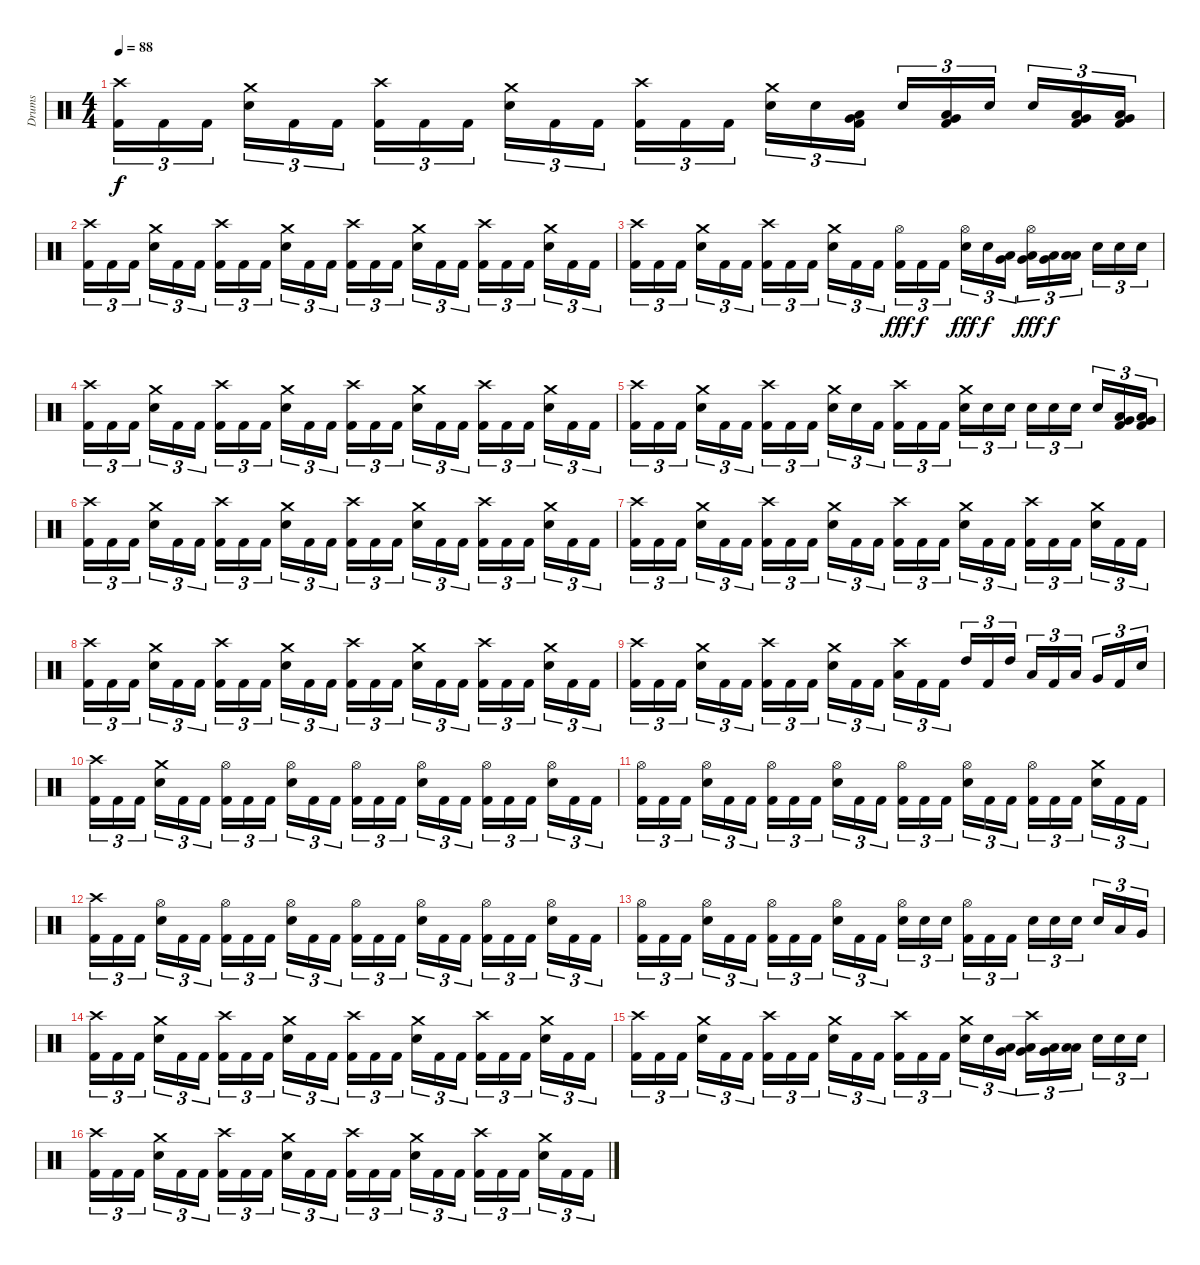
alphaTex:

\track ("Drums" "Drums") {instrument percussion}
\staff {score}
\articulation defaults
\ts (4 4)
\tempo 88
\clef neutral
\ks c
("Crash high (hit)" "Kick (hit) 2").16{tu (3 2) dy f} "Kick (hit) 2".16{tu (3 2)} "Kick (hit) 2".16{tu (3 2)} ("Crash medium (hit)" "Electric Snare (hit)").16{tu (3 2)} "Kick (hit) 2".16{tu (3 2)} "Kick (hit) 2".16{tu (3 2)} ("Crash high (hit)" "Kick (hit) 2").16{tu (3 2)} "Kick (hit) 2".16{tu (3 2)} "Kick (hit) 2".16{tu (3 2)} ("Crash medium (hit)" "Electric Snare (hit)").16{tu (3 2)} "Kick (hit) 2".16{tu (3 2)} "Kick (hit) 2".16{tu (3 2)} ("Crash high (hit)" "Kick (hit) 2").16{tu (3 2)} "Kick (hit) 2".16{tu (3 2)} "Kick (hit) 2".16{tu (3 2)} ("Crash medium (hit)" "Electric Snare (hit)").16{tu (3 2)} "Electric Snare (hit)".16{tu (3 2)} ("Very Low Tom (hit)" "Low Tom (hit)" "Kick (hit) 2").16{tu (3 2)} "Electric Snare (hit)".16{tu (3 2)} ("Low Floor Tom (hit)" "Very Low Tom (hit)" "Kick (hit) 2").16{tu (3 2)} "Electric Snare (hit)".16{tu (3 2)} "Electric Snare (hit)".16{tu (3 2)} ("Very Low Tom (hit)" "Low Tom (hit)" "Kick (hit) 2").16{tu (3 2)} ("Low Floor Tom (hit)" "Very Low Tom (hit)" "Kick (hit) 2").16{tu (3 2)} |
("Crash high (hit)" "Kick (hit) 2").16{tu (3 2)} "Kick (hit) 2".16{tu (3 2)} "Kick (hit) 2".16{tu (3 2)} ("Crash medium (hit)" "Electric Snare (hit)").16{tu (3 2)} "Kick (hit) 2".16{tu (3 2)} "Kick (hit) 2".16{tu (3 2)} ("Crash high (hit)" "Kick (hit) 2").16{tu (3 2)} "Kick (hit) 2".16{tu (3 2)} "Kick (hit) 2".16{tu (3 2)} ("Crash medium (hit)" "Electric Snare (hit)").16{tu (3 2)} "Kick (hit) 2".16{tu (3 2)} "Kick (hit) 2".16{tu (3 2)} ("Crash high (hit)" "Kick (hit) 2").16{tu (3 2)} "Kick (hit) 2".16{tu (3 2)} "Kick (hit) 2".16{tu (3 2)} ("Crash medium (hit)" "Electric Snare (hit)").16{tu (3 2)} "Kick (hit) 2".16{tu (3 2)} "Kick (hit) 2".16{tu (3 2)} ("Crash high (hit)" "Kick (hit) 2").16{tu (3 2)} "Kick (hit) 2".16{tu (3 2)} "Kick (hit) 2".16{tu (3 2)} ("Crash medium (hit)" "Electric Snare (hit)").16{tu (3 2)} "Kick (hit) 2".16{tu (3 2)} "Kick (hit) 2".16{tu (3 2)} |
("Crash high (hit)" "Kick (hit) 2").16{tu (3 2)} "Kick (hit) 2".16{tu (3 2)} "Kick (hit) 2".16{tu (3 2)} ("Crash medium (hit)" "Electric Snare (hit)").16{tu (3 2)} "Kick (hit) 2".16{tu (3 2)} "Kick (hit) 2".16{tu (3 2)} ("Crash high (hit)" "Kick (hit) 2").16{tu (3 2)} "Kick (hit) 2".16{tu (3 2)} "Kick (hit) 2".16{tu (3 2)} ("Crash medium (hit)" "Electric Snare (hit)").16{tu (3 2)} "Kick (hit) 2".16{tu (3 2)} "Kick (hit) 2".16{tu (3 2)} ("Hi-Hat (open)" "Kick (hit) 2").16{tu (3 2) dy fff} "Kick (hit) 2".16{tu (3 2) dy f} "Kick (hit) 2".16{tu (3 2)} ("Hi-Hat (open)" "Electric Snare (hit)").16{tu (3 2) dy fff} "Electric Snare (hit)".16{tu (3 2) dy f} ("Low Tom (hit)" "Very Low Tom (hit)").16{tu (3 2)} ("Hi-Hat (open)" "Very Low Tom (hit)" "Low Floor Tom (hit)").16{tu (3 2) dy fff} ("Very Low Tom (hit)" "Low Floor Tom (hit)").16{tu (3 2) dy f} ("Low Floor Tom (hit)" "Low Floor Tom (hit)").16{tu (3 2)} "Electric Snare (hit)".16{tu (3 2)} "Electric Snare (hit)".16{tu (3 2)} "Electric Snare (hit)".16{tu (3 2)} |
("Crash high (hit)" "Kick (hit) 2").16{tu (3 2)} "Kick (hit) 2".16{tu (3 2)} "Kick (hit) 2".16{tu (3 2)} ("Crash medium (hit)" "Electric Snare (hit)").16{tu (3 2)} "Kick (hit) 2".16{tu (3 2)} "Kick (hit) 2".16{tu (3 2)} ("Crash high (hit)" "Kick (hit) 2").16{tu (3 2)} "Kick (hit) 2".16{tu (3 2)} "Kick (hit) 2".16{tu (3 2)} ("Crash medium (hit)" "Electric Snare (hit)").16{tu (3 2)} "Kick (hit) 2".16{tu (3 2)} "Kick (hit) 2".16{tu (3 2)} ("Crash high (hit)" "Kick (hit) 2").16{tu (3 2)} "Kick (hit) 2".16{tu (3 2)} "Kick (hit) 2".16{tu (3 2)} ("Crash medium (hit)" "Electric Snare (hit)").16{tu (3 2)} "Kick (hit) 2".16{tu (3 2)} "Kick (hit) 2".16{tu (3 2)} ("Crash high (hit)" "Kick (hit) 2").16{tu (3 2)} "Kick (hit) 2".16{tu (3 2)} "Kick (hit) 2".16{tu (3 2)} ("Crash medium (hit)" "Electric Snare (hit)").16{tu (3 2)} "Kick (hit) 2".16{tu (3 2)} "Kick (hit) 2".16{tu (3 2)} |
("Crash high (hit)" "Kick (hit) 2").16{tu (3 2)} "Kick (hit) 2".16{tu (3 2)} "Kick (hit) 2".16{tu (3 2)} ("Crash medium (hit)" "Electric Snare (hit)").16{tu (3 2)} "Kick (hit) 2".16{tu (3 2)} "Kick (hit) 2".16{tu (3 2)} ("Crash high (hit)" "Kick (hit) 2").16{tu (3 2)} "Kick (hit) 2".16{tu (3 2)} "Kick (hit) 2".16{tu (3 2)} ("Crash medium (hit)" "Electric Snare (hit)").16{tu (3 2)} "Electric Snare (hit)".16{tu (3 2)} "Kick (hit) 2".16{tu (3 2)} ("Crash high (hit)" "Kick (hit) 2").16{tu (3 2)} "Kick (hit) 2".16{tu (3 2)} "Kick (hit) 2".16{tu (3 2)} ("Crash medium (hit)" "Electric Snare (hit)").16{tu (3 2)} "Electric Snare (hit)".16{tu (3 2)} "Electric Snare (hit)".16{tu (3 2)} "Electric Snare (hit)".16{tu (3 2)} "Electric Snare (hit)".16{tu (3 2)} "Electric Snare (hit)".16{tu (3 2)} "Electric Snare (hit)".16{tu (3 2)} ("Very Low Tom (hit)" "Low Tom (hit)" "Kick (hit) 2").16{tu (3 2)} ("Low Floor Tom (hit)" "Very Low Tom (hit)" "Kick (hit) 2").16{tu (3 2)} |
("Crash high (hit)" "Kick (hit) 2").16{tu (3 2)} "Kick (hit) 2".16{tu (3 2)} "Kick (hit) 2".16{tu (3 2)} ("Crash medium (hit)" "Electric Snare (hit)").16{tu (3 2)} "Kick (hit) 2".16{tu (3 2)} "Kick (hit) 2".16{tu (3 2)} ("Crash high (hit)" "Kick (hit) 2").16{tu (3 2)} "Kick (hit) 2".16{tu (3 2)} "Kick (hit) 2".16{tu (3 2)} ("Crash medium (hit)" "Electric Snare (hit)").16{tu (3 2)} "Kick (hit) 2".16{tu (3 2)} "Kick (hit) 2".16{tu (3 2)} ("Crash high (hit)" "Kick (hit) 2").16{tu (3 2)} "Kick (hit) 2".16{tu (3 2)} "Kick (hit) 2".16{tu (3 2)} ("Crash medium (hit)" "Electric Snare (hit)").16{tu (3 2)} "Kick (hit) 2".16{tu (3 2)} "Kick (hit) 2".16{tu (3 2)} ("Crash high (hit)" "Kick (hit) 2").16{tu (3 2)} "Kick (hit) 2".16{tu (3 2)} "Kick (hit) 2".16{tu (3 2)} ("Crash medium (hit)" "Electric Snare (hit)").16{tu (3 2)} "Kick (hit) 2".16{tu (3 2)} "Kick (hit) 2".16{tu (3 2)} |
("Crash high (hit)" "Kick (hit) 2").16{tu (3 2)} "Kick (hit) 2".16{tu (3 2)} "Kick (hit) 2".16{tu (3 2)} ("Crash medium (hit)" "Electric Snare (hit)").16{tu (3 2)} "Kick (hit) 2".16{tu (3 2)} "Kick (hit) 2".16{tu (3 2)} ("Crash high (hit)" "Kick (hit) 2").16{tu (3 2)} "Kick (hit) 2".16{tu (3 2)} "Kick (hit) 2".16{tu (3 2)} ("Crash medium (hit)" "Electric Snare (hit)").16{tu (3 2)} "Kick (hit) 2".16{tu (3 2)} "Kick (hit) 2".16{tu (3 2)} ("Crash high (hit)" "Kick (hit) 2").16{tu (3 2)} "Kick (hit) 2".16{tu (3 2)} "Kick (hit) 2".16{tu (3 2)} ("Crash medium (hit)" "Electric Snare (hit)").16{tu (3 2)} "Kick (hit) 2".16{tu (3 2)} "Kick (hit) 2".16{tu (3 2)} ("Crash high (hit)" "Kick (hit) 2").16{tu (3 2)} "Kick (hit) 2".16{tu (3 2)} "Kick (hit) 2".16{tu (3 2)} ("Crash medium (hit)" "Electric Snare (hit)").16{tu (3 2)} "Kick (hit) 2".16{tu (3 2)} "Kick (hit) 2".16{tu (3 2)} |
("Crash high (hit)" "Kick (hit) 2").16{tu (3 2)} "Kick (hit) 2".16{tu (3 2)} "Kick (hit) 2".16{tu (3 2)} ("Crash medium (hit)" "Electric Snare (hit)").16{tu (3 2)} "Kick (hit) 2".16{tu (3 2)} "Kick (hit) 2".16{tu (3 2)} ("Crash high (hit)" "Kick (hit) 2").16{tu (3 2)} "Kick (hit) 2".16{tu (3 2)} "Kick (hit) 2".16{tu (3 2)} ("Crash medium (hit)" "Electric Snare (hit)").16{tu (3 2)} "Kick (hit) 2".16{tu (3 2)} "Kick (hit) 2".16{tu (3 2)} ("Crash high (hit)" "Kick (hit) 2").16{tu (3 2)} "Kick (hit) 2".16{tu (3 2)} "Kick (hit) 2".16{tu (3 2)} ("Crash medium (hit)" "Electric Snare (hit)").16{tu (3 2)} "Kick (hit) 2".16{tu (3 2)} "Kick (hit) 2".16{tu (3 2)} ("Crash high (hit)" "Kick (hit) 2").16{tu (3 2)} "Kick (hit) 2".16{tu (3 2)} "Kick (hit) 2".16{tu (3 2)} ("Crash medium (hit)" "Electric Snare (hit)").16{tu (3 2)} "Kick (hit) 2".16{tu (3 2)} "Kick (hit) 2".16{tu (3 2)} |
("Crash high (hit)" "Kick (hit) 2").16{tu (3 2)} "Kick (hit) 2".16{tu (3 2)} "Kick (hit) 2".16{tu (3 2)} ("Crash medium (hit)" "Electric Snare (hit)").16{tu (3 2)} "Kick (hit) 2".16{tu (3 2)} "Kick (hit) 2".16{tu (3 2)} ("Crash high (hit)" "Kick (hit) 2").16{tu (3 2)} "Kick (hit) 2".16{tu (3 2)} "Kick (hit) 2".16{tu (3 2)} ("Crash medium (hit)" "Electric Snare (hit)").16{tu (3 2)} "Kick (hit) 2".16{tu (3 2)} "Kick (hit) 2".16{tu (3 2)} ("Crash high (hit)" "Low Tom (hit)").16{tu (3 2)} "Kick (hit) 2".16{tu (3 2)} "Kick (hit) 2".16{tu (3 2)} "High Tom (hit)".16{tu (3 2)} "Kick (hit) 2".16{tu (3 2)} "High Tom (hit)".16{tu (3 2)} "Low Tom (hit)".16{tu (3 2)} "Kick (hit) 2".16{tu (3 2)} "Low Tom (hit)".16{tu (3 2)} "Very Low Tom (hit)".16{tu (3 2)} "Kick (hit) 2".16{tu (3 2)} "Electric Snare (hit)".16{tu (3 2)} |
("Crash high (hit)" "Kick (hit) 2").16{tu (3 2)} "Kick (hit) 2".16{tu (3 2)} "Kick (hit) 2".16{tu (3 2)} ("Crash medium (hit)" "Electric Snare (hit)").16{tu (3 2)} "Kick (hit) 2".16{tu (3 2)} "Kick (hit) 2".16{tu (3 2)} ("Hi-Hat (open)" "Kick (hit) 2").16{tu (3 2)} "Kick (hit) 2".16{tu (3 2)} "Kick (hit) 2".16{tu (3 2)} ("Hi-Hat (open)" "Electric Snare (hit)").16{tu (3 2)} "Kick (hit) 2".16{tu (3 2)} "Kick (hit) 2".16{tu (3 2)} ("Hi-Hat (open)" "Kick (hit) 2").16{tu (3 2)} "Kick (hit) 2".16{tu (3 2)} "Kick (hit) 2".16{tu (3 2)} ("Hi-Hat (open)" "Electric Snare (hit)").16{tu (3 2)} "Kick (hit) 2".16{tu (3 2)} "Kick (hit) 2".16{tu (3 2)} ("Hi-Hat (open)" "Kick (hit) 2").16{tu (3 2)} "Kick (hit) 2".16{tu (3 2)} "Kick (hit) 2".16{tu (3 2)} ("Hi-Hat (open)" "Electric Snare (hit)").16{tu (3 2)} "Kick (hit) 2".16{tu (3 2)} "Kick (hit) 2".16{tu (3 2)} |
("Hi-Hat (open)" "Kick (hit) 2").16{tu (3 2)} "Kick (hit) 2".16{tu (3 2)} "Kick (hit) 2".16{tu (3 2)} ("Hi-Hat (open)" "Electric Snare (hit)").16{tu (3 2)} "Kick (hit) 2".16{tu (3 2)} "Kick (hit) 2".16{tu (3 2)} ("Hi-Hat (open)" "Kick (hit) 2").16{tu (3 2)} "Kick (hit) 2".16{tu (3 2)} "Kick (hit) 2".16{tu (3 2)} ("Hi-Hat (open)" "Electric Snare (hit)").16{tu (3 2)} "Kick (hit) 2".16{tu (3 2)} "Kick (hit) 2".16{tu (3 2)} ("Hi-Hat (open)" "Kick (hit) 2").16{tu (3 2)} "Kick (hit) 2".16{tu (3 2)} "Kick (hit) 2".16{tu (3 2)} ("Hi-Hat (open)" "Electric Snare (hit)").16{tu (3 2)} "Kick (hit) 2".16{tu (3 2)} "Kick (hit) 2".16{tu (3 2)} ("Hi-Hat (open)" "Kick (hit) 2").16{tu (3 2)} "Kick (hit) 2".16{tu (3 2)} "Kick (hit) 2".16{tu (3 2)} ("Crash medium (hit)" "Electric Snare (hit)").16{tu (3 2)} "Kick (hit) 2".16{tu (3 2)} "Kick (hit) 2".16{tu (3 2)} |
("Crash high (hit)" "Kick (hit) 2").16{tu (3 2)} "Kick (hit) 2".16{tu (3 2)} "Kick (hit) 2".16{tu (3 2)} ("Hi-Hat (open)" "Electric Snare (hit)").16{tu (3 2)} "Kick (hit) 2".16{tu (3 2)} "Kick (hit) 2".16{tu (3 2)} ("Hi-Hat (open)" "Kick (hit) 2").16{tu (3 2)} "Kick (hit) 2".16{tu (3 2)} "Kick (hit) 2".16{tu (3 2)} ("Hi-Hat (open)" "Electric Snare (hit)").16{tu (3 2)} "Kick (hit) 2".16{tu (3 2)} "Kick (hit) 2".16{tu (3 2)} ("Hi-Hat (open)" "Kick (hit) 2").16{tu (3 2)} "Kick (hit) 2".16{tu (3 2)} "Kick (hit) 2".16{tu (3 2)} ("Hi-Hat (open)" "Electric Snare (hit)").16{tu (3 2)} "Kick (hit) 2".16{tu (3 2)} "Kick (hit) 2".16{tu (3 2)} ("Hi-Hat (open)" "Kick (hit) 2").16{tu (3 2)} "Kick (hit) 2".16{tu (3 2)} "Kick (hit) 2".16{tu (3 2)} ("Hi-Hat (open)" "Electric Snare (hit)").16{tu (3 2)} "Kick (hit) 2".16{tu (3 2)} "Kick (hit) 2".16{tu (3 2)} |
("Hi-Hat (open)" "Kick (hit) 2").16{tu (3 2)} "Kick (hit) 2".16{tu (3 2)} "Kick (hit) 2".16{tu (3 2)} ("Hi-Hat (open)" "Electric Snare (hit)").16{tu (3 2)} "Kick (hit) 2".16{tu (3 2)} "Kick (hit) 2".16{tu (3 2)} ("Hi-Hat (open)" "Kick (hit) 2").16{tu (3 2)} "Kick (hit) 2".16{tu (3 2)} "Kick (hit) 2".16{tu (3 2)} ("Hi-Hat (open)" "Electric Snare (hit)").16{tu (3 2)} "Kick (hit) 2".16{tu (3 2)} "Kick (hit) 2".16{tu (3 2)} ("Hi-Hat (open)" "Electric Snare (hit)").16{tu (3 2)} "Electric Snare (hit)".16{tu (3 2)} "Electric Snare (hit)".16{tu (3 2)} ("Hi-Hat (open)" "Kick (hit) 2").16{tu (3 2)} "Kick (hit) 2".16{tu (3 2)} "Kick (hit) 2".16{tu (3 2)} "Electric Snare (hit)".16{tu (3 2)} "Electric Snare (hit)".16{tu (3 2)} "Electric Snare (hit)".16{tu (3 2)} "Electric Snare (hit)".16{tu (3 2)} "Low Tom (hit)".16{tu (3 2)} "Very Low Tom (hit)".16{tu (3 2)} |
("Crash high (hit)" "Kick (hit) 2").16{tu (3 2)} "Kick (hit) 2".16{tu (3 2)} "Kick (hit) 2".16{tu (3 2)} ("Crash medium (hit)" "Electric Snare (hit)").16{tu (3 2)} "Kick (hit) 2".16{tu (3 2)} "Kick (hit) 2".16{tu (3 2)} ("Crash high (hit)" "Kick (hit) 2").16{tu (3 2)} "Kick (hit) 2".16{tu (3 2)} "Kick (hit) 2".16{tu (3 2)} ("Crash medium (hit)" "Electric Snare (hit)").16{tu (3 2)} "Kick (hit) 2".16{tu (3 2)} "Kick (hit) 2".16{tu (3 2)} ("Crash high (hit)" "Kick (hit) 2").16{tu (3 2)} "Kick (hit) 2".16{tu (3 2)} "Kick (hit) 2".16{tu (3 2)} ("Crash medium (hit)" "Electric Snare (hit)").16{tu (3 2)} "Kick (hit) 2".16{tu (3 2)} "Kick (hit) 2".16{tu (3 2)} ("Crash high (hit)" "Kick (hit) 2").16{tu (3 2)} "Kick (hit) 2".16{tu (3 2)} "Kick (hit) 2".16{tu (3 2)} ("Crash medium (hit)" "Electric Snare (hit)").16{tu (3 2)} "Kick (hit) 2".16{tu (3 2)} "Kick (hit) 2".16{tu (3 2)} |
("Crash high (hit)" "Kick (hit) 2").16{tu (3 2)} "Kick (hit) 2".16{tu (3 2)} "Kick (hit) 2".16{tu (3 2)} ("Crash medium (hit)" "Electric Snare (hit)").16{tu (3 2)} "Kick (hit) 2".16{tu (3 2)} "Kick (hit) 2".16{tu (3 2)} ("Crash high (hit)" "Kick (hit) 2").16{tu (3 2)} "Kick (hit) 2".16{tu (3 2)} "Kick (hit) 2".16{tu (3 2)} ("Crash medium (hit)" "Electric Snare (hit)").16{tu (3 2)} "Kick (hit) 2".16{tu (3 2)} "Kick (hit) 2".16{tu (3 2)} ("Crash high (hit)" "Kick (hit) 2").16{tu (3 2)} "Kick (hit) 2".16{tu (3 2)} "Kick (hit) 2".16{tu (3 2)} ("Crash medium (hit)" "Electric Snare (hit)").16{tu (3 2)} "Electric Snare (hit)".16{tu (3 2)} ("Low Tom (hit)" "Very Low Tom (hit)").16{tu (3 2)} ("Crash high (hit)" "Very Low Tom (hit)" "Low Floor Tom (hit)").16{tu (3 2)} ("Very Low Tom (hit)" "Low Floor Tom (hit)").16{tu (3 2)} ("Low Floor Tom (hit)" "Low Floor Tom (hit)").16{tu (3 2)} "Electric Snare (hit)".16{tu (3 2)} "Electric Snare (hit)".16{tu (3 2)} "Electric Snare (hit)".16{tu (3 2)} |
("Crash high (hit)" "Kick (hit) 2").16{tu (3 2)} "Kick (hit) 2".16{tu (3 2)} "Kick (hit) 2".16{tu (3 2)} ("Crash medium (hit)" "Electric Snare (hit)").16{tu (3 2)} "Kick (hit) 2".16{tu (3 2)} "Kick (hit) 2".16{tu (3 2)} ("Crash high (hit)" "Kick (hit) 2").16{tu (3 2)} "Kick (hit) 2".16{tu (3 2)} "Kick (hit) 2".16{tu (3 2)} ("Crash medium (hit)" "Electric Snare (hit)").16{tu (3 2)} "Kick (hit) 2".16{tu (3 2)} "Kick (hit) 2".16{tu (3 2)} ("Crash high (hit)" "Kick (hit) 2").16{tu (3 2)} "Kick (hit) 2".16{tu (3 2)} "Kick (hit) 2".16{tu (3 2)} ("Crash medium (hit)" "Electric Snare (hit)").16{tu (3 2)} "Kick (hit) 2".16{tu (3 2)} "Kick (hit) 2".16{tu (3 2)} ("Crash high (hit)" "Kick (hit) 2").16{tu (3 2)} "Kick (hit) 2".16{tu (3 2)} "Kick (hit) 2".16{tu (3 2)} ("Crash medium (hit)" "Electric Snare (hit)").16{tu (3 2)} "Kick (hit) 2".16{tu (3 2)} "Kick (hit) 2".16{tu (3 2)}
